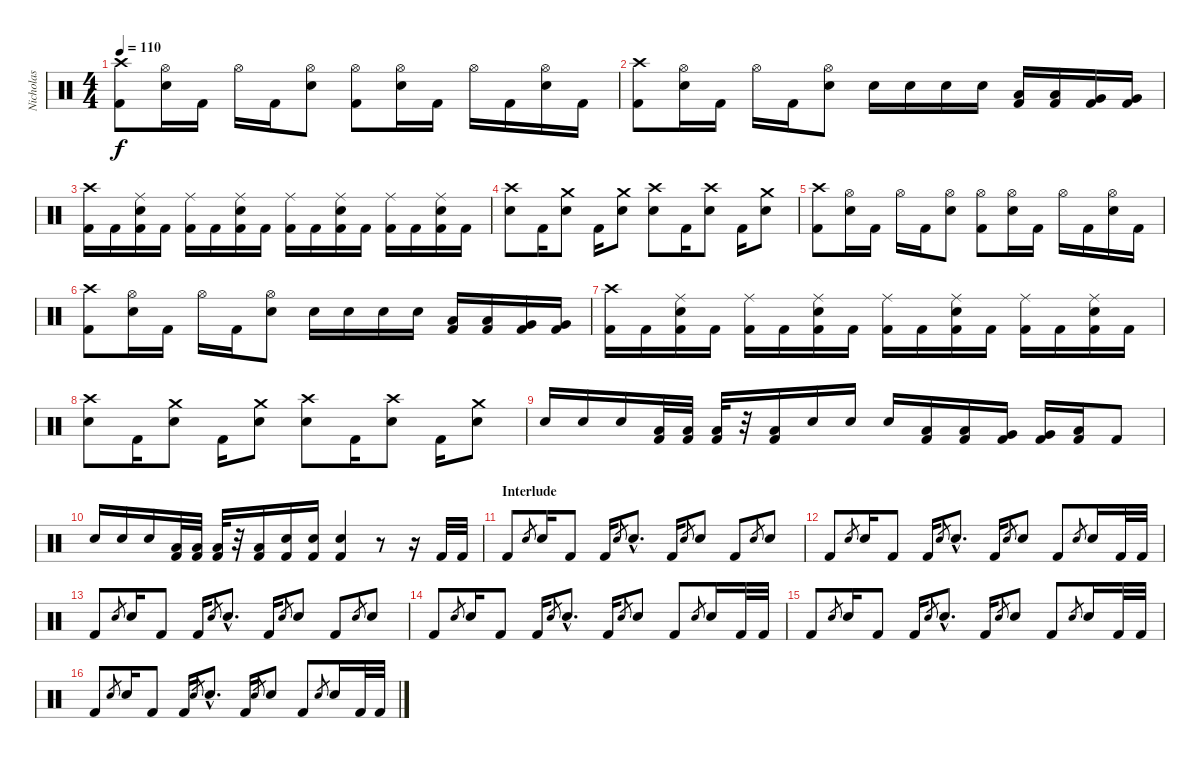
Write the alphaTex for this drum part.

\track ("Nicholas" "Nicholas") {instrument percussion}
\staff {score}
\articulation defaults
\ts (4 4)
\tempo 110
\clef neutral
\ks c
("Crash high (hit)" "Kick (hit) 2").8{dy f} ("Hi-Hat (open)" "Snare (hit) 2").16 "Kick (hit) 2".16 "Hi-Hat (open)".16 "Kick (hit) 2".16 ("Hi-Hat (open)" "Snare (hit) 2").8 ("Hi-Hat (open)" "Kick (hit) 2").8 ("Hi-Hat (open)" "Snare (hit) 2").16 "Kick (hit) 2".16 "Hi-Hat (open)".16 "Kick (hit) 2".16 ("Hi-Hat (open)" "Snare (hit) 2").16 "Kick (hit) 2".16 |
("Crash high (hit)" "Kick (hit) 2").8 ("Hi-Hat (open)" "Snare (hit) 2").16 "Kick (hit) 2".16 "Hi-Hat (open)".16 "Kick (hit) 2".16 ("Hi-Hat (open)" "Snare (hit) 2").8 "Snare (hit) 2".16 "Snare (hit) 2".16 "Snare (hit) 2".16 "Snare (hit) 2".16 ("Kick (hit) 2" "Low Tom (hit)").16 ("Kick (hit) 2" "Low Tom (hit)").16 ("Kick (hit) 2" "Very Low Tom (hit)").16 ("Kick (hit) 2" "Very Low Tom (hit)").16 |
("Crash high (hit)" "Kick (hit) 2").16 "Kick (hit) 2".16 ("Ride (middle)" "Snare (hit) 2" "Kick (hit) 2").16 "Kick (hit) 2".16 ("Ride (middle)" "Kick (hit) 2").16 "Kick (hit) 2".16 ("Ride (middle)" "Snare (hit) 2" "Kick (hit) 2").16 "Kick (hit) 2".16 ("Ride (middle)" "Kick (hit) 2").16 "Kick (hit) 2".16 ("Ride (middle)" "Snare (hit) 2" "Kick (hit) 2").16 "Kick (hit) 2".16 ("Ride (middle)" "Kick (hit) 2").16 "Kick (hit) 2".16 ("Ride (middle)" "Snare (hit) 2" "Kick (hit) 2").16 "Kick (hit) 2".16 |
("Crash high (hit)" "Snare (hit) 2").8 "Kick (hit) 2".16 ("Crash medium (hit)" "Snare (hit) 2").8 "Kick (hit) 2".16 ("Crash medium (hit)" "Snare (hit) 2").8 ("Crash high (hit)" "Snare (hit) 2").8 "Kick (hit) 2".16 ("Crash high (hit)" "Snare (hit) 2").8 "Kick (hit) 2".16 ("Crash medium (hit)" "Snare (hit) 2").8 |
("Crash high (hit)" "Kick (hit) 2").8 ("Hi-Hat (open)" "Snare (hit) 2").16 "Kick (hit) 2".16 "Hi-Hat (open)".16 "Kick (hit) 2".16 ("Hi-Hat (open)" "Snare (hit) 2").8 ("Hi-Hat (open)" "Kick (hit) 2").8 ("Hi-Hat (open)" "Snare (hit) 2").16 "Kick (hit) 2".16 "Hi-Hat (open)".16 "Kick (hit) 2".16 ("Hi-Hat (open)" "Snare (hit) 2").16 "Kick (hit) 2".16 |
("Crash high (hit)" "Kick (hit) 2").8 ("Hi-Hat (open)" "Snare (hit) 2").16 "Kick (hit) 2".16 "Hi-Hat (open)".16 "Kick (hit) 2".16 ("Hi-Hat (open)" "Snare (hit) 2").8 "Snare (hit) 2".16 "Snare (hit) 2".16 "Snare (hit) 2".16 "Snare (hit) 2".16 ("Kick (hit) 2" "Low Tom (hit)").16 ("Kick (hit) 2" "Low Tom (hit)").16 ("Kick (hit) 2" "Very Low Tom (hit)").16 ("Kick (hit) 2" "Very Low Tom (hit)").16 |
("Crash high (hit)" "Kick (hit) 2").16 "Kick (hit) 2".16 ("Ride (middle)" "Snare (hit) 2" "Kick (hit) 2").16 "Kick (hit) 2".16 ("Ride (middle)" "Kick (hit) 2").16 "Kick (hit) 2".16 ("Ride (middle)" "Snare (hit) 2" "Kick (hit) 2").16 "Kick (hit) 2".16 ("Ride (middle)" "Kick (hit) 2").16 "Kick (hit) 2".16 ("Ride (middle)" "Snare (hit) 2" "Kick (hit) 2").16 "Kick (hit) 2".16 ("Ride (middle)" "Kick (hit) 2").16 "Kick (hit) 2".16 ("Ride (middle)" "Snare (hit) 2" "Kick (hit) 2").16 "Kick (hit) 2".16 |
("Crash high (hit)" "Snare (hit) 2").8 "Kick (hit) 2".16 ("Crash medium (hit)" "Snare (hit) 2").8 "Kick (hit) 2".16 ("Crash medium (hit)" "Snare (hit) 2").8 ("Crash high (hit)" "Snare (hit) 2").8 "Kick (hit) 2".16 ("Crash high (hit)" "Snare (hit) 2").8 "Kick (hit) 2".16 ("Crash medium (hit)" "Snare (hit) 2").8 |
"Snare (hit) 2".16 "Snare (hit) 2".16 "Snare (hit) 2".16 ("Kick (hit) 2" "Low Tom (hit)").32 ("Kick (hit) 2" "Low Tom (hit)").32 ("Kick (hit) 2" "Low Tom (hit)").32 r.32 ("Kick (hit) 2" "Low Tom (hit)").16 "Snare (hit) 2".16 "Snare (hit) 2".16 "Snare (hit) 2".16 ("Kick (hit) 2" "Low Tom (hit)").16 ("Kick (hit) 2" "Low Tom (hit)").16 ("Kick (hit) 2" "Very Low Tom (hit)").16 ("Kick (hit) 2" "Very Low Tom (hit)").16 ("Kick (hit) 2" "Low Floor Tom (hit)").16 "Kick (hit) 2".8 |
"Snare (hit) 2".16 "Snare (hit) 2".16 "Snare (hit) 2".16 ("Kick (hit) 2" "Low Tom (hit)").32 ("Kick (hit) 2" "Low Tom (hit)").32 ("Kick (hit) 2" "Low Tom (hit)").32 r.32 ("Kick (hit) 2" "Low Tom (hit)").16 ("Kick (hit) 2" "Snare (hit) 2").16 ("Kick (hit) 2" "Snare (hit) 2").16 ("Kick (hit) 2" "Snare (hit) 2").4 r.8 r.16 "Kick (hit) 2".32 "Kick (hit) 2".32 |
\section ("" "Interlude")
"Kick (hit) 2".8 "Snare (hit) 2".8{gr} "Snare (hit) 2".16 "Kick (hit) 2".8 "Kick (hit) 2".16 "Snare (hit) 2".8{gr} "Snare (hit) 2"{hac}.8{d} "Kick (hit) 2".16 "Snare (hit) 2".8{gr} "Snare (hit) 2".8 "Kick (hit) 2".8 "Snare (hit) 2".8{gr} "Snare (hit) 2".8 |
"Kick (hit) 2".8 "Snare (hit) 2".8{gr} "Snare (hit) 2".16 "Kick (hit) 2".8 "Kick (hit) 2".16 "Snare (hit) 2".8{gr} "Snare (hit) 2"{hac}.8{d} "Kick (hit) 2".16 "Snare (hit) 2".8{gr} "Snare (hit) 2".8 "Kick (hit) 2".8 "Snare (hit) 2".8{gr} "Snare (hit) 2".16 "Kick (hit) 2".32 "Kick (hit) 2".32 |
"Kick (hit) 2".8 "Snare (hit) 2".8{gr} "Snare (hit) 2".16 "Kick (hit) 2".8 "Kick (hit) 2".16 "Snare (hit) 2".8{gr} "Snare (hit) 2"{hac}.8{d} "Kick (hit) 2".16 "Snare (hit) 2".8{gr} "Snare (hit) 2".8 "Kick (hit) 2".8 "Snare (hit) 2".8{gr} "Snare (hit) 2".8 |
"Kick (hit) 2".8 "Snare (hit) 2".8{gr} "Snare (hit) 2".16 "Kick (hit) 2".8 "Kick (hit) 2".16 "Snare (hit) 2".8{gr} "Snare (hit) 2"{hac}.8{d} "Kick (hit) 2".16 "Snare (hit) 2".8{gr} "Snare (hit) 2".8 "Kick (hit) 2".8 "Snare (hit) 2".8{gr} "Snare (hit) 2".16 "Kick (hit) 2".32 "Kick (hit) 2".32 |
"Kick (hit) 2".8 "Snare (hit) 2".8{gr} "Snare (hit) 2".16 "Kick (hit) 2".8 "Kick (hit) 2".16 "Snare (hit) 2".8{gr} "Snare (hit) 2"{hac}.8{d} "Kick (hit) 2".16 "Snare (hit) 2".8{gr} "Snare (hit) 2".8 "Kick (hit) 2".8 "Snare (hit) 2".8{gr} "Snare (hit) 2".16 "Kick (hit) 2".32 "Kick (hit) 2".32 |
"Kick (hit) 2".8 "Snare (hit) 2".8{gr} "Snare (hit) 2".16 "Kick (hit) 2".8 "Kick (hit) 2".16 "Snare (hit) 2".8{gr} "Snare (hit) 2"{hac}.8{d} "Kick (hit) 2".16 "Snare (hit) 2".8{gr} "Snare (hit) 2".8 "Kick (hit) 2".8 "Snare (hit) 2".8{gr} "Snare (hit) 2".16 "Kick (hit) 2".32 "Kick (hit) 2".32
